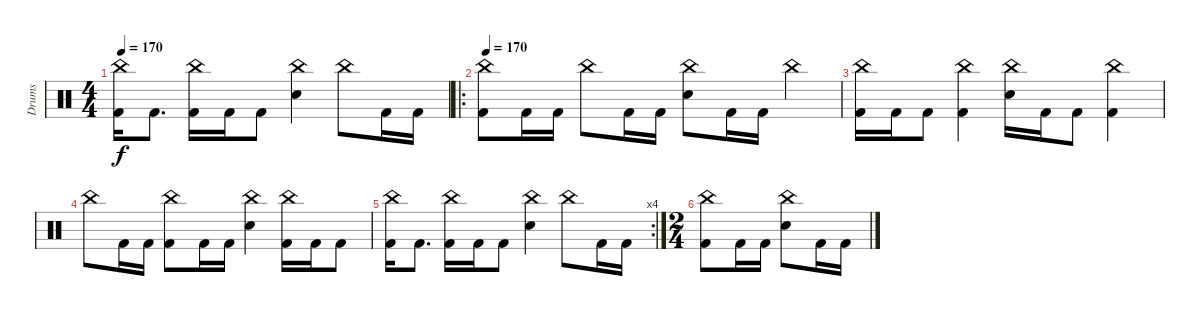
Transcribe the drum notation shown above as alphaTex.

\track ("Drums" "Drums") {instrument percussion}
\staff {score}
\articulation defaults
\ts (4 4)
\tempo 170
\clef neutral
\ks c
("China (hit)" "Kick (hit) 2").16{dy f} "Kick (hit) 2".8{d} ("China (hit)" "Kick (hit) 2").16 "Kick (hit) 2".16 "Kick (hit) 2".8 ("China (hit)" "Electric Snare (hit)").4 "China (hit)".8 "Kick (hit) 2".16 "Kick (hit) 2".16 |
\ro
\tempo 170
("China (hit)" "Kick (hit) 2").8 "Kick (hit) 2".16 "Kick (hit) 2".16 "China (hit)".8 "Kick (hit) 2".16 "Kick (hit) 2".16 ("China (hit)" "Electric Snare (hit)").8 "Kick (hit) 2".16 "Kick (hit) 2".16 "China (hit)".4 |
("China (hit)" "Kick (hit) 2").16 "Kick (hit) 2".16 "Kick (hit) 2".8 ("China (hit)" "Kick (hit) 2").4 ("China (hit)" "Electric Snare (hit)").16 "Kick (hit) 2".16 "Kick (hit) 2".8 ("China (hit)" "Kick (hit) 2").4 |
"China (hit)".8 "Kick (hit) 2".16 "Kick (hit) 2".16 ("China (hit)" "Kick (hit) 2").8 "Kick (hit) 2".16 "Kick (hit) 2".16 ("China (hit)" "Electric Snare (hit)").4 ("China (hit)" "Kick (hit) 2").16 "Kick (hit) 2".16 "Kick (hit) 2".8 |
\rc 4
("China (hit)" "Kick (hit) 2").16 "Kick (hit) 2".8{d} ("China (hit)" "Kick (hit) 2").16 "Kick (hit) 2".16 "Kick (hit) 2".8 ("China (hit)" "Electric Snare (hit)").4 "China (hit)".8 "Kick (hit) 2".16 "Kick (hit) 2".16 |
\ts (2 4)
("China (hit)" "Kick (hit) 2").8 "Kick (hit) 2".16 "Kick (hit) 2".16 ("China (hit)" "Electric Snare (hit)").8 "Kick (hit) 2".16 "Kick (hit) 2".16
